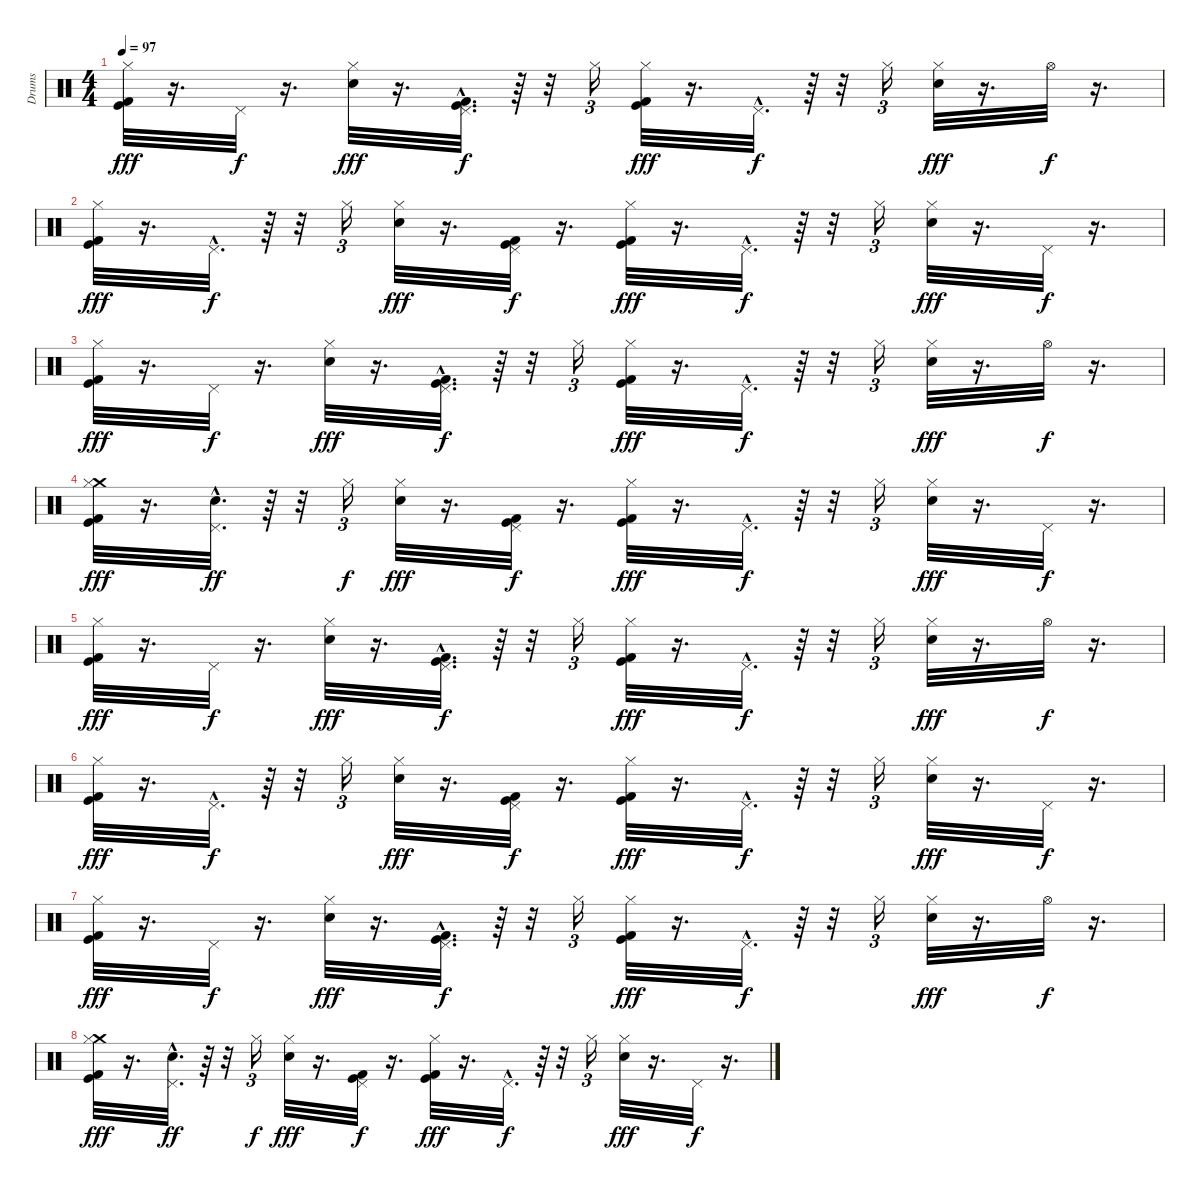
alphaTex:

\track ("Drums" "Drums") {instrument percussion}
\staff {score}
\articulation defaults
\ts (4 4)
\tempo 97
\clef neutral
\ks c
("Kick (hit)" "Kick (hit) 2" "Hi-Hat (closed)").32{dy fff} r.16{d} "Pedal Hi-Hat (hit)".32{dy f} r.16{d} ("Hi-Hat (closed)" "Snare (hit) 2").32{dy fff} r.16{d} ("Kick (hit) 2"{hac} "Kick (hit)"{hac} "Pedal Hi-Hat (hit)"{hac}).32{d dy f} r.64 r.32 "Hi-Hat (closed)".16{tu (3 2)} ("Kick (hit)" "Kick (hit) 2" "Hi-Hat (closed)").32{dy fff} r.16{d} "Pedal Hi-Hat (hit)"{hac}.32{d dy f} r.64 r.32 "Hi-Hat (closed)".16{tu (3 2)} ("Hi-Hat (closed)" "Snare (hit) 2").32{dy fff} r.16{d} "Hi-Hat (open)".32{dy f} r.16{d} |
("Kick (hit)" "Kick (hit) 2" "Hi-Hat (closed)").32{dy fff} r.16{d} "Pedal Hi-Hat (hit)"{hac}.32{d dy f} r.64 r.32 "Hi-Hat (closed)".16{tu (3 2)} ("Hi-Hat (closed)" "Snare (hit) 2").32{dy fff} r.16{d} ("Kick (hit) 2" "Kick (hit)" "Pedal Hi-Hat (hit)").32{dy f} r.16{d} ("Kick (hit)" "Kick (hit) 2" "Hi-Hat (closed)").32{dy fff} r.16{d} "Pedal Hi-Hat (hit)"{hac}.32{d dy f} r.64 r.32 "Hi-Hat (closed)".16{tu (3 2)} ("Hi-Hat (closed)" "Snare (hit) 2").32{dy fff} r.16{d} "Pedal Hi-Hat (hit)".32{dy f} r.16{d} |
("Kick (hit)" "Kick (hit) 2" "Hi-Hat (closed)").32{dy fff} r.16{d} "Pedal Hi-Hat (hit)".32{dy f} r.16{d} ("Hi-Hat (closed)" "Snare (hit) 2").32{dy fff} r.16{d} ("Kick (hit) 2"{hac} "Kick (hit)"{hac} "Pedal Hi-Hat (hit)"{hac}).32{d dy f} r.64 r.32 "Hi-Hat (closed)".16{tu (3 2)} ("Kick (hit)" "Kick (hit) 2" "Hi-Hat (closed)").32{dy fff} r.16{d} "Pedal Hi-Hat (hit)"{hac}.32{d dy f} r.64 r.32 "Hi-Hat (closed)".16{tu (3 2)} ("Hi-Hat (closed)" "Snare (hit) 2").32{dy fff} r.16{d} "Hi-Hat (open)".32{dy f} r.16{d} |
("Crash medium (hit)" "Kick (hit)" "Kick (hit) 2" "Hi-Hat (closed)").32{dy fff} r.16{d} ("Snare (hit) 2"{hac} "Pedal Hi-Hat (hit)"{hac}).32{d dy ff} r.64 r.32 "Hi-Hat (closed)".16{tu (3 2) dy f} ("Hi-Hat (closed)" "Snare (hit) 2").32{dy fff} r.16{d} ("Kick (hit) 2" "Kick (hit)" "Pedal Hi-Hat (hit)").32{dy f} r.16{d} ("Kick (hit)" "Kick (hit) 2" "Hi-Hat (closed)").32{dy fff} r.16{d} "Pedal Hi-Hat (hit)"{hac}.32{d dy f} r.64 r.32 "Hi-Hat (closed)".16{tu (3 2)} ("Hi-Hat (closed)" "Snare (hit) 2").32{dy fff} r.16{d} "Pedal Hi-Hat (hit)".32{dy f} r.16{d} |
("Kick (hit)" "Kick (hit) 2" "Hi-Hat (closed)").32{dy fff} r.16{d} "Pedal Hi-Hat (hit)".32{dy f} r.16{d} ("Hi-Hat (closed)" "Snare (hit) 2").32{dy fff} r.16{d} ("Kick (hit) 2"{hac} "Kick (hit)"{hac} "Pedal Hi-Hat (hit)"{hac}).32{d dy f} r.64 r.32 "Hi-Hat (closed)".16{tu (3 2)} ("Kick (hit)" "Kick (hit) 2" "Hi-Hat (closed)").32{dy fff} r.16{d} "Pedal Hi-Hat (hit)"{hac}.32{d dy f} r.64 r.32 "Hi-Hat (closed)".16{tu (3 2)} ("Hi-Hat (closed)" "Snare (hit) 2").32{dy fff} r.16{d} "Hi-Hat (open)".32{dy f} r.16{d} |
("Kick (hit)" "Kick (hit) 2" "Hi-Hat (closed)").32{dy fff} r.16{d} "Pedal Hi-Hat (hit)"{hac}.32{d dy f} r.64 r.32 "Hi-Hat (closed)".16{tu (3 2)} ("Hi-Hat (closed)" "Snare (hit) 2").32{dy fff} r.16{d} ("Kick (hit) 2" "Kick (hit)" "Pedal Hi-Hat (hit)").32{dy f} r.16{d} ("Kick (hit)" "Kick (hit) 2" "Hi-Hat (closed)").32{dy fff} r.16{d} "Pedal Hi-Hat (hit)"{hac}.32{d dy f} r.64 r.32 "Hi-Hat (closed)".16{tu (3 2)} ("Hi-Hat (closed)" "Snare (hit) 2").32{dy fff} r.16{d} "Pedal Hi-Hat (hit)".32{dy f} r.16{d} |
("Kick (hit)" "Kick (hit) 2" "Hi-Hat (closed)").32{dy fff} r.16{d} "Pedal Hi-Hat (hit)".32{dy f} r.16{d} ("Hi-Hat (closed)" "Snare (hit) 2").32{dy fff} r.16{d} ("Kick (hit) 2"{hac} "Kick (hit)"{hac} "Pedal Hi-Hat (hit)"{hac}).32{d dy f} r.64 r.32 "Hi-Hat (closed)".16{tu (3 2)} ("Kick (hit)" "Kick (hit) 2" "Hi-Hat (closed)").32{dy fff} r.16{d} "Pedal Hi-Hat (hit)"{hac}.32{d dy f} r.64 r.32 "Hi-Hat (closed)".16{tu (3 2)} ("Hi-Hat (closed)" "Snare (hit) 2").32{dy fff} r.16{d} "Hi-Hat (open)".32{dy f} r.16{d} |
("Crash medium (hit)" "Kick (hit)" "Kick (hit) 2" "Hi-Hat (closed)").32{dy fff} r.16{d} ("Snare (hit) 2"{hac} "Pedal Hi-Hat (hit)"{hac}).32{d dy ff} r.64 r.32 "Hi-Hat (closed)".16{tu (3 2) dy f} ("Hi-Hat (closed)" "Snare (hit) 2").32{dy fff} r.16{d} ("Kick (hit) 2" "Kick (hit)" "Pedal Hi-Hat (hit)").32{dy f} r.16{d} ("Kick (hit)" "Kick (hit) 2" "Hi-Hat (closed)").32{dy fff} r.16{d} "Pedal Hi-Hat (hit)"{hac}.32{d dy f} r.64 r.32 "Hi-Hat (closed)".16{tu (3 2)} ("Hi-Hat (closed)" "Snare (hit) 2").32{dy fff} r.16{d} "Pedal Hi-Hat (hit)".32{dy f} r.16{d}
